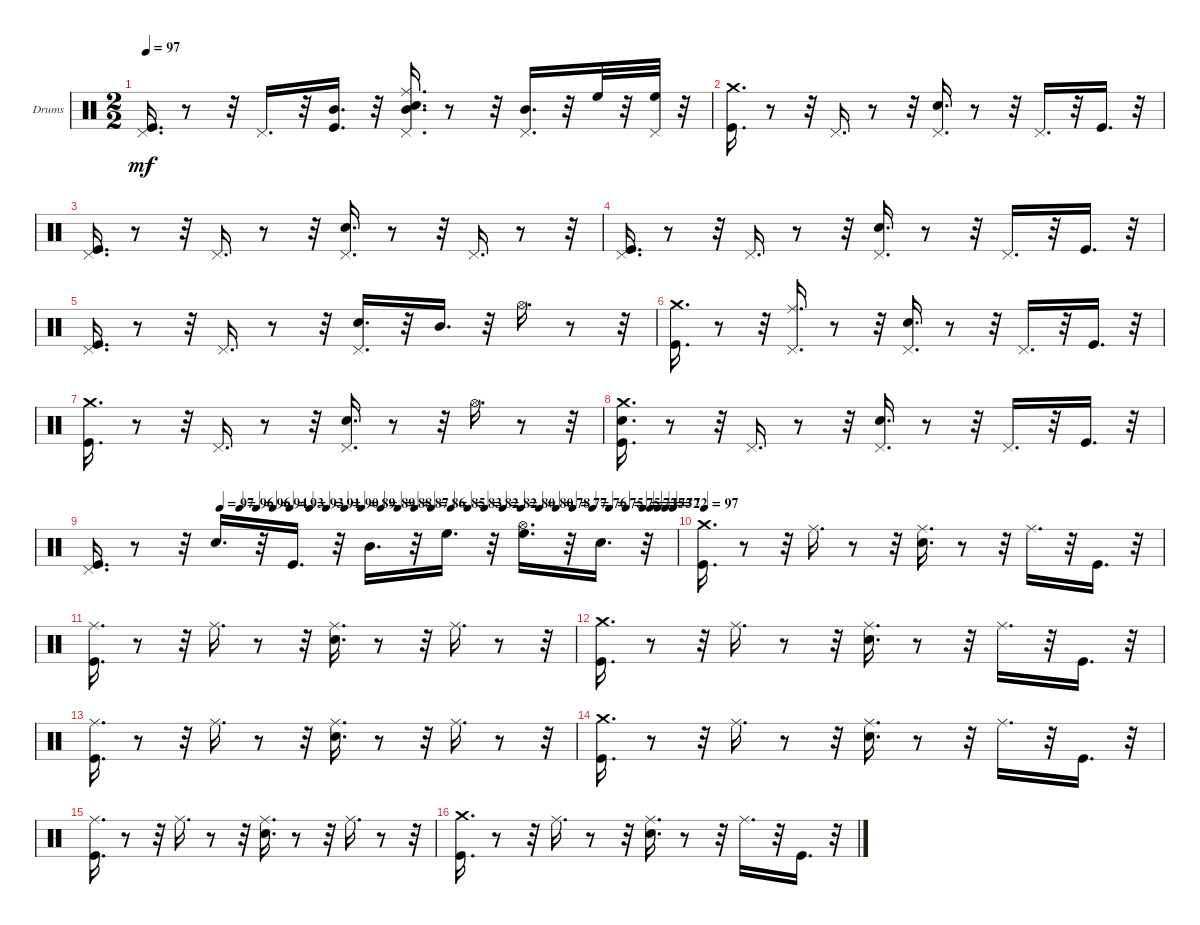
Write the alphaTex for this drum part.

\bracketExtendMode groupsimilarinstruments
\firstSystemTrackNameOrientation horizontal
\otherSystemsTrackNameOrientation horizontal
\track ("Percusion" "Drums") {instrument percussion}
\staff {score}
\articulation defaults
\ts (2 2)
\tempo 97
\clef neutral
\ks c
("Pedal Hi-Hat (hit)" "Kick (hit)").16{d dy mf} r.8 r.32 "Pedal Hi-Hat (hit)".16{d} r.32 ("Mid Tom (hit)" "Kick (hit)").16{d} r.32 ("Ride (middle)" "Pedal Hi-Hat (hit)" "Snare (hit) 2" "Mid Tom (hit)").16{d} r.8 r.32 ("Pedal Hi-Hat (hit)" "Mid Tom (hit)").16{d} r.32 "High Floor Tom (hit)".32 r.32 ("Pedal Hi-Hat (hit)" "High Floor Tom (hit)").32 r.32 |
("Crash medium (hit)" "Kick (hit)").16{d} r.8 r.32 "Pedal Hi-Hat (hit)".16{d} r.8 r.32 ("Pedal Hi-Hat (hit)" "Snare (hit) 2").16{d} r.8 r.32 "Pedal Hi-Hat (hit)".16{d} r.32 "Kick (hit)".16{d} r.32 |
("Pedal Hi-Hat (hit)" "Kick (hit)").16{d} r.8 r.32 "Pedal Hi-Hat (hit)".16{d} r.8 r.32 ("Pedal Hi-Hat (hit)" "Snare (hit) 2").16{d} r.8 r.32 "Pedal Hi-Hat (hit)".16{d} r.8 r.32 |
("Pedal Hi-Hat (hit)" "Kick (hit)").16{d} r.8 r.32 "Pedal Hi-Hat (hit)".16{d} r.8 r.32 ("Pedal Hi-Hat (hit)" "Snare (hit) 2").16{d} r.8 r.32 "Pedal Hi-Hat (hit)".16{d} r.32 "Kick (hit)".16{d} r.32 |
("Pedal Hi-Hat (hit)" "Kick (hit)").16{d} r.8 r.32 "Pedal Hi-Hat (hit)".16{d} r.8 r.32 ("Pedal Hi-Hat (hit)" "Snare (hit) 2").16{d} r.32 "Mid Tom (hit)".16{d} r.32 "Hi-Hat (open)".16{d} r.8 r.32 |
("Crash medium (hit)" "Kick (hit)").16{d} r.8 r.32 ("Ride (middle)" "Pedal Hi-Hat (hit)").16{d} r.8 r.32 ("Pedal Hi-Hat (hit)" "Snare (hit) 2").16{d} r.8 r.32 "Pedal Hi-Hat (hit)".16{d} r.32 "Kick (hit)".16{d} r.32 |
("Crash medium (hit)" "Kick (hit)").16{d} r.8 r.32 "Pedal Hi-Hat (hit)".16{d} r.8 r.32 ("Pedal Hi-Hat (hit)" "Snare (hit) 2").16{d} r.8 r.32 "Hi-Hat (open)".16{d} r.8 r.32 |
("Crash medium (hit)" "Snare (hit) 2" "Kick (hit)").16{d} r.8 r.32 "Pedal Hi-Hat (hit)".16{d} r.8 r.32 ("Pedal Hi-Hat (hit)" "Snare (hit) 2").16{d} r.8 r.32 "Pedal Hi-Hat (hit)".16{d} r.32 "Kick (hit)".16{d} r.32 |
\tempo (97 0.21875)
\tempo (96 0.252604)
\tempo (96 0.28125)
\tempo (94 0.309896)
\tempo (93 0.338542)
\tempo (93 0.372396)
\tempo (91 0.401042)
\tempo (90 0.432292)
\tempo (89 0.460938)
\tempo (89 0.494792)
\tempo (88 0.523438)
\tempo (87 0.552083)
\tempo (86 0.580729)
\tempo (85 0.614583)
\tempo (83 0.643229)
\tempo (82 0.671875)
\tempo (82 0.703125)
\tempo (80 0.734375)
\tempo (80 0.765625)
\tempo (78 0.794271)
\tempo (77 0.822917)
\tempo (76 0.856771)
\tempo (75 0.885417)
\tempo (75 0.914063)
\tempo (73 0.942708)
\tempo (75 0.955729)
\tempo (73 0.96875)
\tempo (72 0.981771)
\tempo (72 0.994792)
("Pedal Hi-Hat (hit)" "Kick (hit)").16{d} r.8 r.32 "Snare (hit) 2".16{d} r.32 "Kick (hit)".16{d} r.32 "Mid Tom (hit)".16{d} r.32 "High Floor Tom (hit)".16{d} r.32 ("Hi-Hat (open)" "High Floor Tom (hit)").16{d} r.32 "Snare (hit) 2".16{d} r.32 |
\tempo (97 0.00260417)
("Crash medium (hit)" "Kick (hit)").16{d} r.8 r.32 "Ride (middle)".16{d} r.8 r.32 ("Ride (middle)" "Snare (hit) 2").16{d} r.8 r.32 "Ride (middle)".16{d} r.32 "Kick (hit)".16{d} r.32 |
("Ride (middle)" "Kick (hit)").16{d} r.8 r.32 "Ride (middle)".16{d} r.8 r.32 ("Ride (middle)" "Snare (hit) 2").16{d} r.8 r.32 "Ride (middle)".16{d} r.8 r.32 |
("Crash medium (hit)" "Kick (hit)").16{d} r.8 r.32 "Ride (middle)".16{d} r.8 r.32 ("Ride (middle)" "Snare (hit) 2").16{d} r.8 r.32 "Ride (middle)".16{d} r.32 "Kick (hit)".16{d} r.32 |
("Ride (middle)" "Kick (hit)").16{d} r.8 r.32 "Ride (middle)".16{d} r.8 r.32 ("Ride (middle)" "Snare (hit) 2").16{d} r.8 r.32 "Ride (middle)".16{d} r.8 r.32 |
("Crash medium (hit)" "Kick (hit)").16{d} r.8 r.32 "Ride (middle)".16{d} r.8 r.32 ("Ride (middle)" "Snare (hit) 2").16{d} r.8 r.32 "Ride (middle)".16{d} r.32 "Kick (hit)".16{d} r.32 |
("Ride (middle)" "Kick (hit)").16{d} r.8 r.32 "Ride (middle)".16{d} r.8 r.32 ("Ride (middle)" "Snare (hit) 2").16{d} r.8 r.32 "Ride (middle)".16{d} r.8 r.32 |
("Crash medium (hit)" "Kick (hit)").16{d} r.8 r.32 "Ride (middle)".16{d} r.8 r.32 ("Ride (middle)" "Snare (hit) 2").16{d} r.8 r.32 "Ride (middle)".16{d} r.32 "Kick (hit)".16{d} r.32
